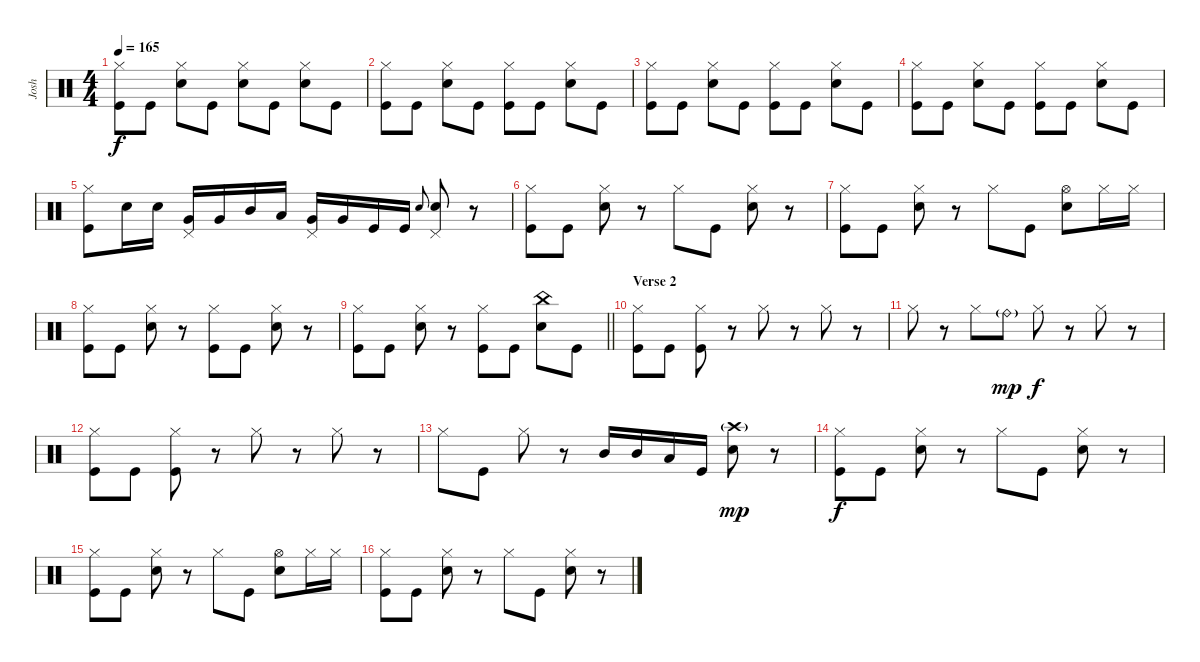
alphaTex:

\track ("Josh" "Josh") {instrument percussion}
\staff {score}
\articulation defaults
\ts (4 4)
\tempo 165
\clef neutral
\ks c
("Hi-Hat (closed)" "Kick (hit)").8{dy f} "Kick (hit)".8 ("Hi-Hat (closed)" "Snare (hit) 2").8 "Kick (hit)".8 ("Hi-Hat (closed)" "Snare (hit) 2").8 "Kick (hit)".8 ("Hi-Hat (closed)" "Snare (hit) 2").8 "Kick (hit)".8 |
("Hi-Hat (closed)" "Kick (hit)").8 "Kick (hit)".8 ("Hi-Hat (closed)" "Snare (hit) 2").8 "Kick (hit)".8 ("Hi-Hat (closed)" "Kick (hit)").8 "Kick (hit)".8 ("Hi-Hat (closed)" "Snare (hit) 2").8 "Kick (hit)".8 |
("Hi-Hat (closed)" "Kick (hit)").8 "Kick (hit)".8 ("Hi-Hat (closed)" "Snare (hit) 2").8 "Kick (hit)".8 ("Hi-Hat (closed)" "Kick (hit)").8 "Kick (hit)".8 ("Hi-Hat (closed)" "Snare (hit) 2").8 "Kick (hit)".8 |
("Hi-Hat (closed)" "Kick (hit)").8 "Kick (hit)".8 ("Hi-Hat (closed)" "Snare (hit) 2").8 "Kick (hit)".8 ("Hi-Hat (closed)" "Kick (hit)").8 "Kick (hit)".8 ("Hi-Hat (closed)" "Snare (hit) 2").8 "Kick (hit)".8 |
("Hi-Hat (closed)" "Kick (hit)").8 "Snare (hit) 2".16 "Snare (hit) 2".16 ("Pedal Hi-Hat (hit)" "Very Low Tom (hit)").16 "Very Low Tom (hit)".16 "Mid Tom (hit)".16 "Low Tom (hit)".16 ("Pedal Hi-Hat (hit)" "Very Low Tom (hit)").16 "Very Low Tom (hit)".16 "Kick (hit)".16 "Kick (hit)".16 "Snare (hit) 2".8{gr onbeat} ("Pedal Hi-Hat (hit)" "Snare (hit) 2").8 r.8 |
("Hi-Hat (closed)" "Kick (hit)").8 "Kick (hit)".8 ("Hi-Hat (closed)" "Snare (hit) 2").8 r.8 "Hi-Hat (closed)".8 "Kick (hit)".8 ("Hi-Hat (closed)" "Snare (hit) 2").8 r.8 |
("Hi-Hat (closed)" "Kick (hit)").8 "Kick (hit)".8 ("Hi-Hat (closed)" "Snare (hit) 2").8 r.8 "Hi-Hat (closed)".8 "Kick (hit)".8 ("Hi-Hat (open)" "Snare (hit) 2").8 "Hi-Hat (closed)".16 "Hi-Hat (closed)".16 |
("Hi-Hat (closed)" "Kick (hit)").8 "Kick (hit)".8 ("Hi-Hat (closed)" "Snare (hit) 2").8 r.8 ("Hi-Hat (closed)" "Kick (hit)").8 "Kick (hit)".8 ("Hi-Hat (closed)" "Snare (hit) 2").8 r.8 |
\barLineRight lightlight
("Hi-Hat (closed)" "Kick (hit)").8 "Kick (hit)".8 ("Hi-Hat (closed)" "Snare (hit) 2").8 r.8 ("Hi-Hat (closed)" "Kick (hit)").8 "Kick (hit)".8 ("China (hit)" "Snare (hit) 2").8 "Kick (hit)".8 |
\section ("" "Verse 2")
("Hi-Hat (closed)" "Kick (hit)").8 "Kick (hit)".8 ("Hi-Hat (closed)" "Kick (hit)").8 r.8 "Hi-Hat (closed)".8 r.8 "Hi-Hat (closed)".8 r.8 |
"Hi-Hat (closed)".8 r.8 "Hi-Hat (closed)".8 "Ride (bell)"{g}.8{dy mp} "Hi-Hat (closed)".8{dy f} r.8 "Hi-Hat (closed)".8 r.8 |
("Hi-Hat (closed)" "Kick (hit)").8 "Kick (hit)".8 ("Hi-Hat (closed)" "Kick (hit)").8 r.8 "Hi-Hat (closed)".8 r.8 "Hi-Hat (closed)".8 r.8 |
"Hi-Hat (closed)".8 "Kick (hit)".8 "Hi-Hat (closed)".8 r.8 "Mid Tom (hit)".16 "Mid Tom (hit)".16 "Low Tom (hit)".16 "Kick (hit)".16 ("Crash high (hit)"{g} "Snare (hit) 2").8{dy mp} r.8 |
("Hi-Hat (closed)" "Kick (hit)").8{dy f} "Kick (hit)".8 ("Hi-Hat (closed)" "Snare (hit) 2").8 r.8 "Hi-Hat (closed)".8 "Kick (hit)".8 ("Hi-Hat (closed)" "Snare (hit) 2").8 r.8 |
("Hi-Hat (closed)" "Kick (hit)").8 "Kick (hit)".8 ("Hi-Hat (closed)" "Snare (hit) 2").8 r.8 "Hi-Hat (closed)".8 "Kick (hit)".8 ("Hi-Hat (open)" "Snare (hit) 2").8 "Hi-Hat (closed)".16 "Hi-Hat (closed)".16 |
("Hi-Hat (closed)" "Kick (hit)").8 "Kick (hit)".8 ("Hi-Hat (closed)" "Snare (hit) 2").8 r.8 "Hi-Hat (closed)".8 "Kick (hit)".8 ("Hi-Hat (closed)" "Snare (hit) 2").8 r.8
